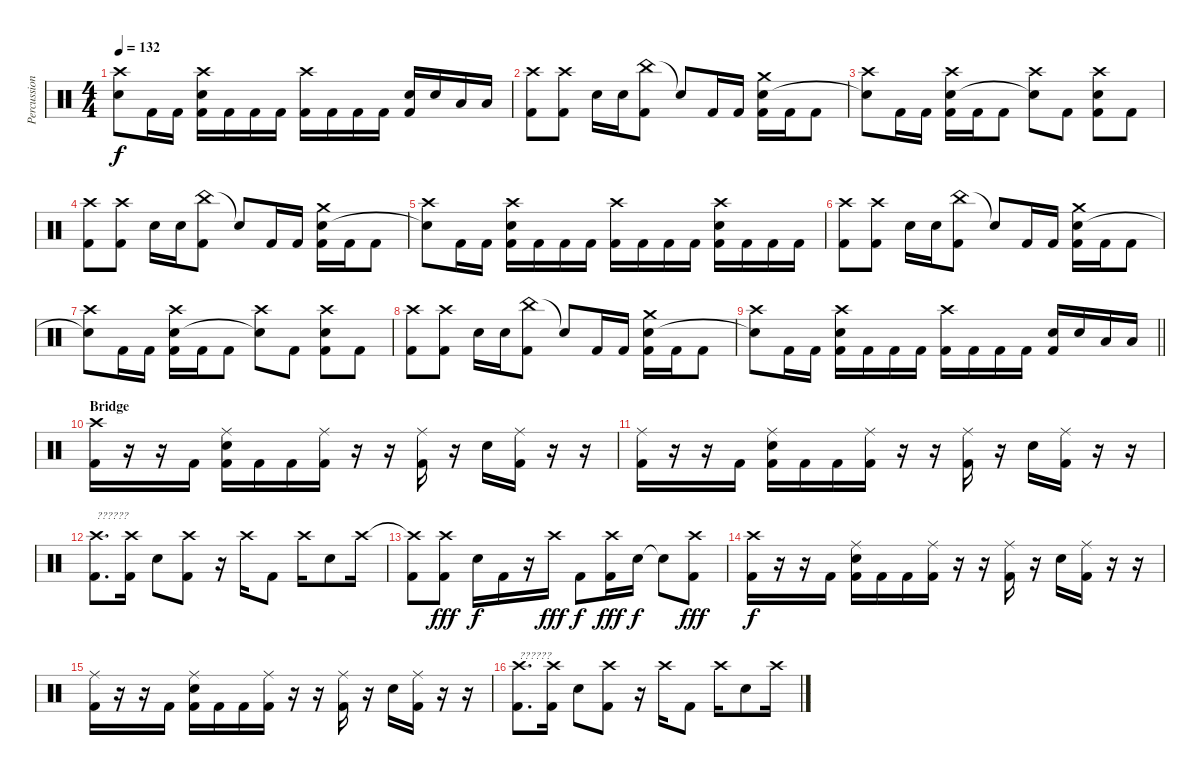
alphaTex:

\track ("Percussion" "Percussion") {instrument percussion}
\staff {score}
\articulation defaults
\ts (4 4)
\tempo 132
\clef neutral
\ks c
("Crash high (hit)" "Snare (hit)"{t}).8{dy f} "Kick (hit) 2".16 "Kick (hit) 2".16 ("Crash high (hit)" "Electric Snare (hit)" "Kick (hit) 2").16 "Kick (hit) 2".16 "Kick (hit) 2".16 "Kick (hit) 2".16 ("Crash high (hit)" "Kick (hit) 2").16 "Kick (hit) 2".16 "Kick (hit) 2".16 "Kick (hit) 2".16 ("Electric Snare (hit)" "Kick (hit) 2").16 "Electric Snare (hit)".16 "Low Tom (hit)".16 "Low Tom (hit)".16 |
("Crash high (hit)" "Kick (hit) 2").8 ("Crash high (hit)" "Kick (hit) 2").8 "Electric Snare (hit)".16 "Electric Snare (hit)".16 ("China (hit)" "Kick (hit) 2").8 "Snare (hit)"{t}.8 "Kick (hit) 2".16 "Kick (hit) 2".16 ("Crash medium (hit)" "Electric Snare (hit)" "Kick (hit) 2").16 "Kick (hit) 2".16 "Kick (hit) 2".8 |
("Crash high (hit)" "Snare (hit)"{t}).8 "Kick (hit) 2".16 "Kick (hit) 2".16 ("Crash high (hit)" "Electric Snare (hit)" "Kick (hit) 2").16 "Kick (hit) 2".16 "Kick (hit) 2".8 ("Crash high (hit)" "Snare (hit)"{t}).8 "Kick (hit) 2".8 ("Crash high (hit)" "Electric Snare (hit)" "Kick (hit) 2").8 "Kick (hit) 2".8 |
("Crash high (hit)" "Kick (hit) 2").8 ("Crash high (hit)" "Kick (hit) 2").8 "Electric Snare (hit)".16 "Electric Snare (hit)".16 ("China (hit)" "Kick (hit) 2").8 "Snare (hit)"{t}.8 "Kick (hit) 2".16 "Kick (hit) 2".16 ("Crash medium (hit)" "Electric Snare (hit)" "Kick (hit) 2").16 "Kick (hit) 2".16 "Kick (hit) 2".8 |
("Crash high (hit)" "Snare (hit)"{t}).8 "Kick (hit) 2".16 "Kick (hit) 2".16 ("Crash high (hit)" "Electric Snare (hit)" "Kick (hit) 2").16 "Kick (hit) 2".16 "Kick (hit) 2".16 "Kick (hit) 2".16 ("Crash high (hit)" "Kick (hit) 2").16 "Kick (hit) 2".16 "Kick (hit) 2".16 "Kick (hit) 2".16 ("Crash high (hit)" "Electric Snare (hit)" "Kick (hit) 2").16 "Kick (hit) 2".16 "Kick (hit) 2".16 "Kick (hit) 2".16 |
("Crash high (hit)" "Kick (hit) 2").8 ("Crash high (hit)" "Kick (hit) 2").8 "Electric Snare (hit)".16 "Electric Snare (hit)".16 ("China (hit)" "Kick (hit) 2").8 "Snare (hit)"{t}.8 "Kick (hit) 2".16 "Kick (hit) 2".16 ("Crash medium (hit)" "Electric Snare (hit)" "Kick (hit) 2").16 "Kick (hit) 2".16 "Kick (hit) 2".8 |
("Crash high (hit)" "Snare (hit)"{t}).8 "Kick (hit) 2".16 "Kick (hit) 2".16 ("Crash high (hit)" "Electric Snare (hit)" "Kick (hit) 2").16 "Kick (hit) 2".16 "Kick (hit) 2".8 ("Crash high (hit)" "Snare (hit)"{t}).8 "Kick (hit) 2".8 ("Crash high (hit)" "Electric Snare (hit)" "Kick (hit) 2").8 "Kick (hit) 2".8 |
("Crash high (hit)" "Kick (hit) 2").8 ("Crash high (hit)" "Kick (hit) 2").8 "Electric Snare (hit)".16 "Electric Snare (hit)".16 ("China (hit)" "Kick (hit) 2").8 "Snare (hit)"{t}.8 "Kick (hit) 2".16 "Kick (hit) 2".16 ("Crash medium (hit)" "Electric Snare (hit)" "Kick (hit) 2").16 "Kick (hit) 2".16 "Kick (hit) 2".8 |
\barLineRight lightlight
("Crash high (hit)" "Snare (hit)"{t}).8 "Kick (hit) 2".16 "Kick (hit) 2".16 ("Crash high (hit)" "Electric Snare (hit)" "Kick (hit) 2").16 "Kick (hit) 2".16 "Kick (hit) 2".16 "Kick (hit) 2".16 ("Crash high (hit)" "Kick (hit) 2").16 "Kick (hit) 2".16 "Kick (hit) 2".16 "Kick (hit) 2".16 ("Electric Snare (hit)" "Kick (hit) 2").16 "Electric Snare (hit)".16 "Low Tom (hit)".16 "Low Tom (hit)".16 |
\section ("" "Bridge")
("Crash high (hit)" "Kick (hit) 2").16 r.16 r.16 "Kick (hit) 2".16 ("Ride (middle)" "Electric Snare (hit)" "Kick (hit) 2").16 "Kick (hit) 2".16 "Kick (hit) 2".16 ("Ride (middle)" "Kick (hit) 2").16 r.16 r.16 ("Ride (middle)" "Kick (hit) 2").16 r.16 "Electric Snare (hit)".16 ("Ride (middle)" "Kick (hit) 2").16 r.16 r.16 |
("Ride (middle)" "Kick (hit) 2").16 r.16 r.16 "Kick (hit) 2".16 ("Ride (middle)" "Electric Snare (hit)" "Kick (hit) 2").16 "Kick (hit) 2".16 "Kick (hit) 2".16 ("Ride (middle)" "Kick (hit) 2").16 r.16 r.16 ("Ride (middle)" "Kick (hit) 2").16 r.16 "Electric Snare (hit)".16 ("Ride (middle)" "Kick (hit) 2").16 r.16 r.16 |
("Crash high (hit)" "Kick (hit) 2").8{d txt "??????"} ("Crash high (hit)" "Kick (hit) 2").16 "Electric Snare (hit)".8 ("Crash high (hit)" "Kick (hit) 2").8 r.16 "Crash high (hit)".16 "Kick (hit) 2".8 "Crash high (hit)".16 "Electric Snare (hit)".8 "Crash high (hit)".16 |
("Crash high (hit)"{t} "Kick (hit) 2").8 ("Crash high (hit)" "Kick (hit) 2").8{dy fff} "Electric Snare (hit)".16{dy f} "Kick (hit) 2".16 r.16 "Crash high (hit)".16{dy fff} "Kick (hit) 2".8{dy f} ("Crash high (hit)" "Kick (hit) 2").16{dy fff} "Electric Snare (hit)".16{dy f} "Snare (hit)"{t}.8 ("Crash high (hit)" "Kick (hit) 2").8{dy fff} |
("Crash high (hit)" "Kick (hit) 2").16{dy f} r.16 r.16 "Kick (hit) 2".16 ("Ride (middle)" "Electric Snare (hit)" "Kick (hit) 2").16 "Kick (hit) 2".16 "Kick (hit) 2".16 ("Ride (middle)" "Kick (hit) 2").16 r.16 r.16 ("Ride (middle)" "Kick (hit) 2").16 r.16 "Electric Snare (hit)".16 ("Ride (middle)" "Kick (hit) 2").16 r.16 r.16 |
("Ride (middle)" "Kick (hit) 2").16 r.16 r.16 "Kick (hit) 2".16 ("Ride (middle)" "Electric Snare (hit)" "Kick (hit) 2").16 "Kick (hit) 2".16 "Kick (hit) 2".16 ("Ride (middle)" "Kick (hit) 2").16 r.16 r.16 ("Ride (middle)" "Kick (hit) 2").16 r.16 "Electric Snare (hit)".16 ("Ride (middle)" "Kick (hit) 2").16 r.16 r.16 |
("Crash high (hit)" "Kick (hit) 2").8{d txt "??????"} ("Crash high (hit)" "Kick (hit) 2").16 "Electric Snare (hit)".8 ("Crash high (hit)" "Kick (hit) 2").8 r.16 "Crash high (hit)".16 "Kick (hit) 2".8 "Crash high (hit)".16 "Electric Snare (hit)".8 "Crash high (hit)".16
